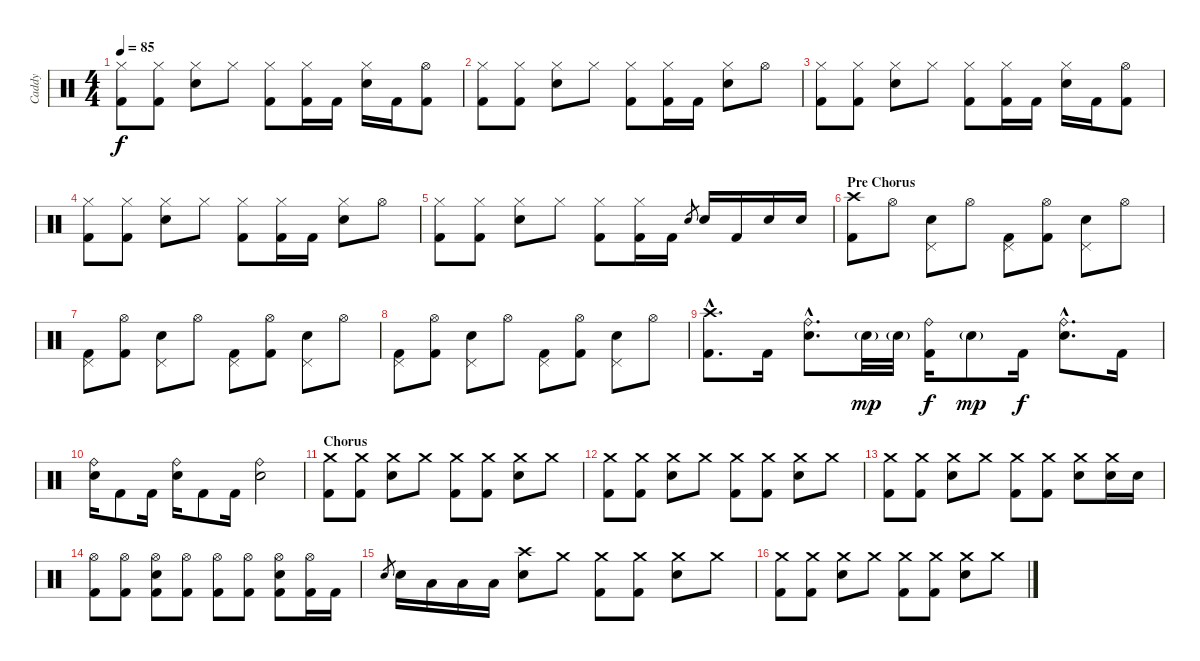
\track ("Caddy" "Caddy") {instrument percussion}
\staff {score}
\articulation defaults
\ts (4 4)
\tempo 85
\clef neutral
\ks c
("Hi-Hat (closed)" "Kick (hit) 2").8{dy f} ("Hi-Hat (closed)" "Kick (hit) 2").8 ("Hi-Hat (closed)" "Electric Snare (hit)").8 "Hi-Hat (closed)".8 ("Hi-Hat (closed)" "Kick (hit) 2").8 ("Hi-Hat (closed)" "Kick (hit) 2").16 "Kick (hit) 2".16 ("Hi-Hat (closed)" "Electric Snare (hit)").16 "Kick (hit) 2".16 ("Hi-Hat (open)" "Kick (hit) 2").8 |
("Hi-Hat (closed)" "Kick (hit) 2").8 ("Hi-Hat (closed)" "Kick (hit) 2").8 ("Hi-Hat (closed)" "Electric Snare (hit)").8 "Hi-Hat (closed)".8 ("Hi-Hat (closed)" "Kick (hit) 2").8 ("Hi-Hat (closed)" "Kick (hit) 2").16 "Kick (hit) 2".16 ("Hi-Hat (closed)" "Electric Snare (hit)").8 "Hi-Hat (open)".8 |
("Hi-Hat (closed)" "Kick (hit) 2").8 ("Hi-Hat (closed)" "Kick (hit) 2").8 ("Hi-Hat (closed)" "Electric Snare (hit)").8 "Hi-Hat (closed)".8 ("Hi-Hat (closed)" "Kick (hit) 2").8 ("Hi-Hat (closed)" "Kick (hit) 2").16 "Kick (hit) 2".16 ("Hi-Hat (closed)" "Electric Snare (hit)").16 "Kick (hit) 2".16 ("Hi-Hat (open)" "Kick (hit) 2").8 |
("Hi-Hat (closed)" "Kick (hit) 2").8 ("Hi-Hat (closed)" "Kick (hit) 2").8 ("Hi-Hat (closed)" "Electric Snare (hit)").8 "Hi-Hat (closed)".8 ("Hi-Hat (closed)" "Kick (hit) 2").8 ("Hi-Hat (closed)" "Kick (hit) 2").16 "Kick (hit) 2".16 ("Hi-Hat (closed)" "Electric Snare (hit)").8 "Hi-Hat (open)".8 |
("Hi-Hat (closed)" "Kick (hit) 2").8 ("Hi-Hat (closed)" "Kick (hit) 2").8 ("Hi-Hat (closed)" "Electric Snare (hit)").8 "Hi-Hat (closed)".8 ("Hi-Hat (closed)" "Kick (hit) 2").8 ("Hi-Hat (closed)" "Kick (hit) 2").16 "Kick (hit) 2".16 "Electric Snare (hit)".8{gr} "Electric Snare (hit)".16 "Kick (hit) 2".16 "Electric Snare (hit)".16 "Electric Snare (hit)".16 |
\section ("" "Pre Chorus")
("Crash high (hit)" "Kick (hit) 2").8 "Hi-Hat (open)".8 ("Pedal Hi-Hat (hit)" "Electric Snare (hit)").8 "Hi-Hat (open)".8 ("Pedal Hi-Hat (hit)" "Kick (hit) 2").8 ("Hi-Hat (open)" "Kick (hit) 2").8 ("Pedal Hi-Hat (hit)" "Electric Snare (hit)").8 "Hi-Hat (open)".8 |
("Pedal Hi-Hat (hit)" "Kick (hit) 2").8 ("Hi-Hat (open)" "Kick (hit) 2").8 ("Pedal Hi-Hat (hit)" "Electric Snare (hit)").8 "Hi-Hat (open)".8 ("Pedal Hi-Hat (hit)" "Kick (hit) 2").8 ("Hi-Hat (open)" "Kick (hit) 2").8 ("Pedal Hi-Hat (hit)" "Electric Snare (hit)").8 "Hi-Hat (open)".8 |
("Pedal Hi-Hat (hit)" "Kick (hit) 2").8 ("Hi-Hat (open)" "Kick (hit) 2").8 ("Pedal Hi-Hat (hit)" "Electric Snare (hit)").8 "Hi-Hat (open)".8 ("Pedal Hi-Hat (hit)" "Kick (hit) 2").8 ("Hi-Hat (open)" "Kick (hit) 2").8 ("Pedal Hi-Hat (hit)" "Electric Snare (hit)").8 "Hi-Hat (open)".8 |
("Crash high (hit)"{hac} "Kick (hit) 2"{hac}).8{d} "Kick (hit) 2".16 ("Ride (bell)"{hac} "Electric Snare (hit)"{hac}).8{d} "Electric Snare (hit)"{g}.32{dy mp} "Electric Snare (hit)"{g}.32 ("Ride (bell)" "Kick (hit) 2").16{dy f} "Electric Snare (hit)"{g}.8{dy mp} "Kick (hit) 2".16{dy f} ("Ride (bell)"{hac} "Electric Snare (hit)"{hac}).8{d} "Kick (hit) 2".16 |
("Ride (bell)" "Electric Snare (hit)").16 "Kick (hit) 2".8 "Kick (hit) 2".16 ("Ride (bell)" "Electric Snare (hit)").16 "Kick (hit) 2".8 "Kick (hit) 2".16 ("Ride (bell)" "Electric Snare (hit)").2 |
\section ("" "Chorus")
("Crash medium (hit)" "Kick (hit) 2").8 ("Crash medium (hit)" "Kick (hit) 2").8 ("Crash medium (hit)" "Electric Snare (hit)").8 "Crash medium (hit)".8 ("Crash medium (hit)" "Kick (hit) 2").8 ("Crash medium (hit)" "Kick (hit) 2").8 ("Crash medium (hit)" "Electric Snare (hit)").8 "Crash medium (hit)".8 |
("Crash medium (hit)" "Kick (hit) 2").8 ("Crash medium (hit)" "Kick (hit) 2").8 ("Crash medium (hit)" "Electric Snare (hit)").8 "Crash medium (hit)".8 ("Crash medium (hit)" "Kick (hit) 2").8 ("Crash medium (hit)" "Kick (hit) 2").8 ("Crash medium (hit)" "Electric Snare (hit)").8 "Crash medium (hit)".8 |
("Crash medium (hit)" "Kick (hit) 2").8 ("Crash medium (hit)" "Kick (hit) 2").8 ("Crash medium (hit)" "Electric Snare (hit)").8 "Crash medium (hit)".8 ("Crash medium (hit)" "Kick (hit) 2").8 ("Crash medium (hit)" "Kick (hit) 2").8 ("Crash medium (hit)" "Electric Snare (hit)").8 ("Crash medium (hit)" "Electric Snare (hit)").16 "Electric Snare (hit)".16 |
("Hi-Hat (open)" "Kick (hit) 2").8 ("Hi-Hat (open)" "Kick (hit) 2").8 ("Hi-Hat (open)" "Electric Snare (hit)" "Kick (hit) 2").8 ("Hi-Hat (open)" "Kick (hit) 2").8 ("Hi-Hat (open)" "Kick (hit) 2").8 ("Hi-Hat (open)" "Kick (hit) 2").8 ("Hi-Hat (open)" "Electric Snare (hit)" "Kick (hit) 2").8 ("Hi-Hat (open)" "Kick (hit) 2").16 "Kick (hit) 2".16 |
"Electric Snare (hit)".8{gr} "Electric Snare (hit)".16 "Low Tom (hit)".16 "Low Tom (hit)".16 "Low Tom (hit)".16 ("Crash high (hit)" "Electric Snare (hit)").8 "Crash medium (hit)".8 ("Crash medium (hit)" "Kick (hit) 2").8 ("Crash medium (hit)" "Kick (hit) 2").8 ("Crash medium (hit)" "Electric Snare (hit)").8 "Crash medium (hit)".8 |
("Crash medium (hit)" "Kick (hit) 2").8 ("Crash medium (hit)" "Kick (hit) 2").8 ("Crash medium (hit)" "Electric Snare (hit)").8 "Crash medium (hit)".8 ("Crash medium (hit)" "Kick (hit) 2").8 ("Crash medium (hit)" "Kick (hit) 2").8 ("Crash medium (hit)" "Electric Snare (hit)").8 "Crash medium (hit)".8
